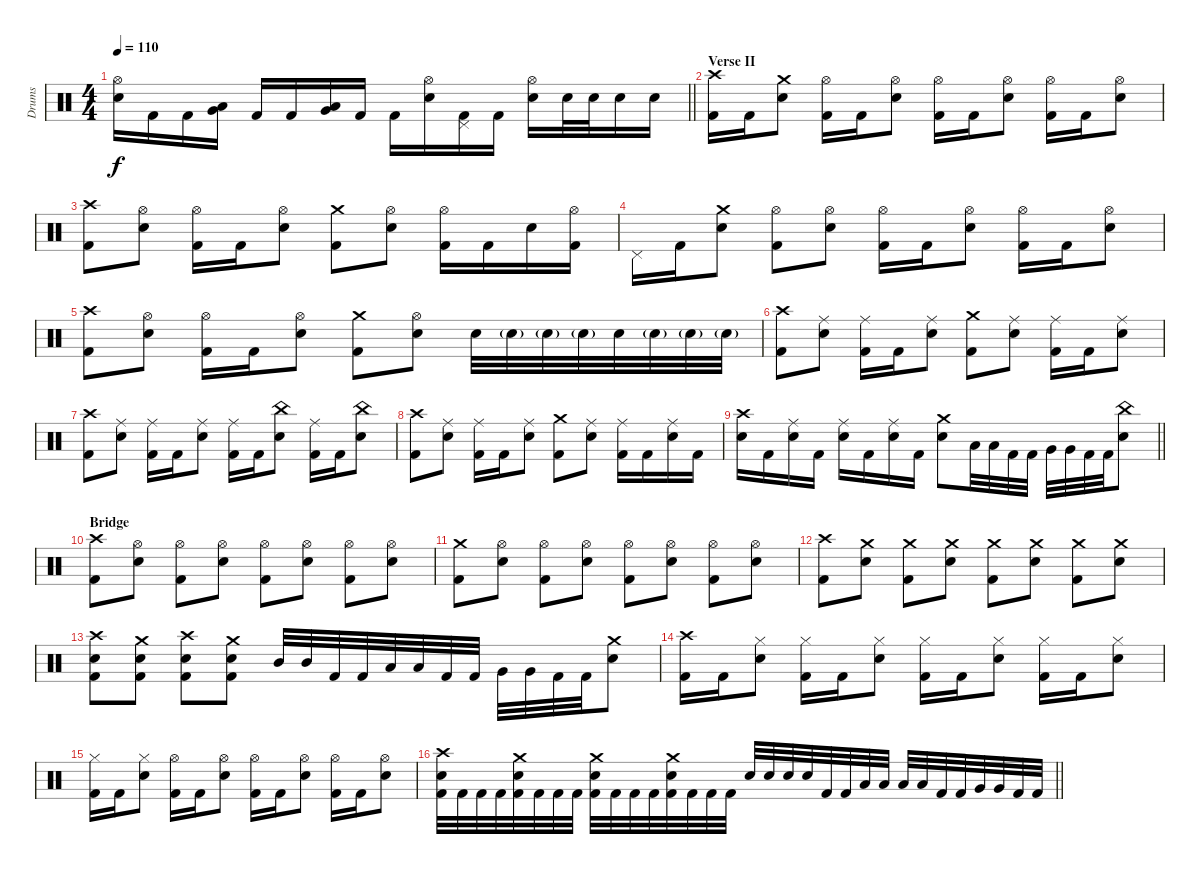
\track ("Drums" "Drums") {instrument percussion}
\staff {score}
\articulation defaults
\ts (4 4)
\tempo 110
\clef neutral
\barLineRight lightlight
\ks c
("Hi-Hat (open)" "Electric Snare (hit)").16{dy f} "Kick (hit) 2".16 "Kick (hit) 2".16 ("Low Tom (hit)" "Very Low Tom (hit)").16 "Kick (hit) 2".16 "Kick (hit) 2".16 ("Very Low Tom (hit)" "Low Floor Tom (hit)").16 "Kick (hit) 2".16 "Kick (hit) 2".16 ("Hi-Hat (open)" "Electric Snare (hit)").16 ("Pedal Hi-Hat (hit)" "Kick (hit) 2").16 "Kick (hit) 2".16 ("Hi-Hat (open)" "Electric Snare (hit)").16 "Electric Snare (hit)".32 "Electric Snare (hit)".32 "Electric Snare (hit)".16 "Electric Snare (hit)".16 |
\section ("" "Verse II")
("Crash high (hit)" "Kick (hit) 2").16 "Kick (hit) 2".16 ("Crash medium (hit)" "Electric Snare (hit)").8 ("Hi-Hat (open)" "Kick (hit) 2").16 "Kick (hit) 2".16 ("Hi-Hat (open)" "Electric Snare (hit)").8 ("Hi-Hat (open)" "Kick (hit) 2").16 "Kick (hit) 2".16 ("Hi-Hat (open)" "Electric Snare (hit)").8 ("Hi-Hat (open)" "Kick (hit) 2").16 "Kick (hit) 2".16 ("Hi-Hat (open)" "Electric Snare (hit)").8 |
("Crash high (hit)" "Kick (hit) 2").8 ("Hi-Hat (open)" "Electric Snare (hit)").8 ("Hi-Hat (open)" "Kick (hit) 2").16 "Kick (hit) 2".16 ("Hi-Hat (open)" "Electric Snare (hit)").8 ("Crash medium (hit)" "Kick (hit) 2").8 ("Hi-Hat (open)" "Electric Snare (hit)").8 ("Hi-Hat (open)" "Kick (hit) 2").16 "Kick (hit) 2".16 "Electric Snare (hit)".16 ("Hi-Hat (open)" "Kick (hit) 2").16 |
"Pedal Hi-Hat (hit)".16 "Kick (hit) 2".16 ("Crash medium (hit)" "Electric Snare (hit)").8 ("Hi-Hat (open)" "Kick (hit) 2").8 ("Hi-Hat (open)" "Electric Snare (hit)").8 ("Hi-Hat (open)" "Kick (hit) 2").16 "Kick (hit) 2".16 ("Hi-Hat (open)" "Electric Snare (hit)").8 ("Hi-Hat (open)" "Kick (hit) 2").16 "Kick (hit) 2".16 ("Hi-Hat (open)" "Electric Snare (hit)").8 |
("Crash high (hit)" "Kick (hit) 2").8 ("Hi-Hat (open)" "Electric Snare (hit)").8 ("Hi-Hat (open)" "Kick (hit) 2").16 "Kick (hit) 2".16 ("Hi-Hat (open)" "Electric Snare (hit)").8 ("Crash medium (hit)" "Kick (hit) 2").8 ("Hi-Hat (open)" "Electric Snare (hit)").8 "Electric Snare (hit)".32 "Electric Snare (hit)"{g}.32 "Electric Snare (hit)"{g}.32 "Electric Snare (hit)"{g}.32 "Electric Snare (hit)".32 "Electric Snare (hit)"{g}.32 "Electric Snare (hit)"{g}.32 "Electric Snare (hit)"{g}.32 |
("Crash high (hit)" "Kick (hit) 2").8 ("Ride (middle)" "Electric Snare (hit)").8 ("Ride (middle)" "Kick (hit) 2").16 "Kick (hit) 2".16 ("Ride (middle)" "Electric Snare (hit)").8 ("Crash medium (hit)" "Kick (hit) 2").8 ("Ride (middle)" "Electric Snare (hit)").8 ("Ride (middle)" "Kick (hit) 2").16 "Kick (hit) 2".16 ("Ride (middle)" "Electric Snare (hit)").8 |
("Crash high (hit)" "Kick (hit) 2").8 ("Ride (middle)" "Electric Snare (hit)").8 ("Ride (middle)" "Kick (hit) 2").16 "Kick (hit) 2".16 ("Ride (middle)" "Electric Snare (hit)").8 ("Ride (middle)" "Kick (hit) 2").16 "Kick (hit) 2".16 ("China (hit)" "Electric Snare (hit)").8 ("Ride (middle)" "Kick (hit) 2").16 "Kick (hit) 2".16 ("China (hit)" "Electric Snare (hit)").8 |
("Crash high (hit)" "Kick (hit) 2").8 ("Ride (middle)" "Electric Snare (hit)").8 ("Ride (middle)" "Kick (hit) 2").16 "Kick (hit) 2".16 ("Ride (middle)" "Electric Snare (hit)").8 ("Crash medium (hit)" "Kick (hit) 2").8 ("Ride (middle)" "Electric Snare (hit)").8 ("Ride (middle)" "Kick (hit) 2").16 "Kick (hit) 2".16 ("Ride (middle)" "Electric Snare (hit)").16 "Kick (hit) 2".16 |
\barLineRight lightlight
("Crash high (hit)" "Electric Snare (hit)").16 "Kick (hit) 2".16 ("Ride (middle)" "Electric Snare (hit)").16 "Kick (hit) 2".16 ("Ride (middle)" "Electric Snare (hit)").16 "Kick (hit) 2".16 ("Ride (middle)" "Electric Snare (hit)").16 "Kick (hit) 2".16 ("Crash medium (hit)" "Electric Snare (hit)").8 "Low Tom (hit)".32 "Low Tom (hit)".32 "Kick (hit) 2".32 "Kick (hit) 2".32 "Very Low Tom (hit)".32 "Very Low Tom (hit)".32 "Kick (hit) 2".32 "Kick (hit) 2".32 ("China (hit)" "Electric Snare (hit)").8 |
\section ("" "Bridge")
("Crash high (hit)" "Kick (hit) 2").8 ("Hi-Hat (open)" "Electric Snare (hit)").8 ("Hi-Hat (open)" "Kick (hit) 2").8 ("Hi-Hat (open)" "Electric Snare (hit)").8 ("Hi-Hat (open)" "Kick (hit) 2").8 ("Hi-Hat (open)" "Electric Snare (hit)").8 ("Hi-Hat (open)" "Kick (hit) 2").8 ("Hi-Hat (open)" "Electric Snare (hit)").8 |
("Crash medium (hit)" "Kick (hit) 2").8 ("Hi-Hat (open)" "Electric Snare (hit)").8 ("Hi-Hat (open)" "Kick (hit) 2").8 ("Hi-Hat (open)" "Electric Snare (hit)").8 ("Hi-Hat (open)" "Kick (hit) 2").8 ("Hi-Hat (open)" "Electric Snare (hit)").8 ("Hi-Hat (open)" "Kick (hit) 2").8 ("Hi-Hat (open)" "Electric Snare (hit)").8 |
("Crash high (hit)" "Kick (hit) 2").8 ("Crash medium (hit)" "Electric Snare (hit)").8 ("Crash medium (hit)" "Kick (hit) 2").8 ("Crash medium (hit)" "Electric Snare (hit)").8 ("Crash medium (hit)" "Kick (hit) 2").8 ("Crash medium (hit)" "Electric Snare (hit)").8 ("Crash medium (hit)" "Kick (hit) 2").8 ("Crash medium (hit)" "Electric Snare (hit)").8 |
("Crash high (hit)" "Electric Snare (hit)" "Kick (hit) 2").8 ("Crash medium (hit)" "Electric Snare (hit)" "Kick (hit) 2").8 ("Crash high (hit)" "Electric Snare (hit)" "Kick (hit) 2").8 ("Crash medium (hit)" "Electric Snare (hit)" "Kick (hit) 2").8 "Mid Tom (hit)".32 "Mid Tom (hit)".32 "Kick (hit) 2".32 "Kick (hit) 2".32 "Low Tom (hit)".32 "Low Tom (hit)".32 "Kick (hit) 2".32 "Kick (hit) 2".32 "Very Low Tom (hit)".32 "Very Low Tom (hit)".32 "Kick (hit) 2".32 "Kick (hit) 2".32 ("Crash medium (hit)" "Electric Snare (hit)").8 |
("Crash high (hit)" "Kick (hit) 2").16 "Kick (hit) 2".16 ("Hi-Hat (closed)" "Electric Snare (hit)").8 ("Hi-Hat (closed)" "Kick (hit) 2").16 "Kick (hit) 2".16 ("Hi-Hat (closed)" "Electric Snare (hit)").8 ("Hi-Hat (closed)" "Kick (hit) 2").16 "Kick (hit) 2".16 ("Hi-Hat (closed)" "Electric Snare (hit)").8 ("Hi-Hat (closed)" "Kick (hit) 2").16 "Kick (hit) 2".16 ("Hi-Hat (closed)" "Electric Snare (hit)").8 |
("Hi-Hat (closed)" "Kick (hit) 2").16 "Kick (hit) 2".16 ("Hi-Hat (closed)" "Electric Snare (hit)").8 ("Hi-Hat (open)" "Kick (hit) 2").16 "Kick (hit) 2".16 ("Hi-Hat (open)" "Electric Snare (hit)").8 ("Hi-Hat (open)" "Kick (hit) 2").16 "Kick (hit) 2".16 ("Hi-Hat (open)" "Electric Snare (hit)").8 ("Hi-Hat (open)" "Kick (hit) 2").16 "Kick (hit) 2".16 ("Hi-Hat (open)" "Electric Snare (hit)").8 |
\barLineRight lightlight
("Crash high (hit)" "Electric Snare (hit)" "Kick (hit) 2").32 "Kick (hit) 2".32 "Kick (hit) 2".32 "Kick (hit) 2".32 ("Crash medium (hit)" "Electric Snare (hit)" "Kick (hit) 2").32 "Kick (hit) 2".32 "Kick (hit) 2".32 "Kick (hit) 2".32 ("Crash medium (hit)" "Electric Snare (hit)" "Kick (hit) 2").32 "Kick (hit) 2".32 "Kick (hit) 2".32 "Kick (hit) 2".32 ("Crash medium (hit)" "Electric Snare (hit)" "Kick (hit) 2").32 "Kick (hit) 2".32 "Kick (hit) 2".32 "Kick (hit) 2".32 "Electric Snare (hit)".32 "Electric Snare (hit)".32 "Electric Snare (hit)".32 "Electric Snare (hit)".32 "Kick (hit) 2".32 "Kick (hit) 2".32 "Low Tom (hit)".32 "Low Tom (hit)".32 "Low Tom (hit)".32 "Low Tom (hit)".32 "Kick (hit) 2".32 "Kick (hit) 2".32 "Very Low Tom (hit)".32 "Very Low Tom (hit)".32 "Kick (hit) 2".32 "Kick (hit) 2".32
